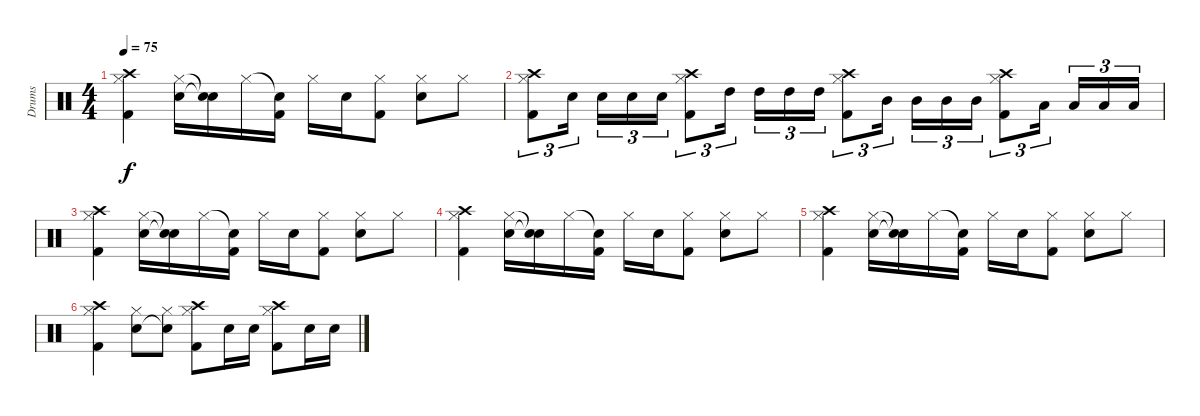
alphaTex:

\track ("Drums" "Drums") {instrument percussion}
\staff {score}
\articulation defaults
\ts (4 4)
\tempo 75
\clef neutral
\ks c
("Hi-Hat (closed)" "Crash high (hit)" "Kick (hit) 2").4{dy f} ("Hi-Hat (closed)" "Electric Snare (hit)").16 ("Snare (hit)"{t} "Snare (hit)"{t}).16 "Hi-Hat (closed)".16 ("Snare (hit)"{t} "Kick (hit) 2").16 "Hi-Hat (closed)".16 "Electric Snare (hit)".16 ("Hi-Hat (closed)" "Kick (hit) 2").8 ("Electric Snare (hit)" "Hi-Hat (closed)").8 "Hi-Hat (closed)".8 |
("Crash high (hit)" "Hi-Hat (closed)" "Kick (hit) 2").8{tu (3 2)} "Electric Snare (hit)".16{tu (3 2)} "Electric Snare (hit)".16{tu (3 2)} "Electric Snare (hit)".16{tu (3 2)} "Electric Snare (hit)".16{tu (3 2)} ("Crash high (hit)" "Hi-Hat (closed)" "Kick (hit) 2").8{tu (3 2)} "High Tom (hit)".16{tu (3 2)} "High Tom (hit)".16{tu (3 2)} "High Tom (hit)".16{tu (3 2)} "High Tom (hit)".16{tu (3 2)} ("Crash high (hit)" "Hi-Hat (closed)" "Kick (hit) 2").8{tu (3 2)} "Mid Tom (hit)".16{tu (3 2)} "Mid Tom (hit)".16{tu (3 2)} "Mid Tom (hit)".16{tu (3 2)} "Mid Tom (hit)".16{tu (3 2)} ("Crash high (hit)" "Hi-Hat (closed)" "Kick (hit) 2").8{tu (3 2)} "Low Tom (hit)".16{tu (3 2)} "Low Tom (hit)".16{tu (3 2)} "Low Tom (hit)".16{tu (3 2)} "Low Tom (hit)".16{tu (3 2)} |
("Hi-Hat (closed)" "Crash high (hit)" "Kick (hit) 2").4 ("Hi-Hat (closed)" "Electric Snare (hit)").16 ("Snare (hit)"{t} "Snare (hit)"{t}).16 "Hi-Hat (closed)".16 ("Snare (hit)"{t} "Kick (hit) 2").16 "Hi-Hat (closed)".16 "Electric Snare (hit)".16 ("Hi-Hat (closed)" "Kick (hit) 2").8 ("Electric Snare (hit)" "Hi-Hat (closed)").8 "Hi-Hat (closed)".8 |
("Hi-Hat (closed)" "Crash high (hit)" "Kick (hit) 2").4 ("Hi-Hat (closed)" "Electric Snare (hit)").16 ("Snare (hit)"{t} "Snare (hit)"{t}).16 "Hi-Hat (closed)".16 ("Snare (hit)"{t} "Kick (hit) 2").16 "Hi-Hat (closed)".16 "Electric Snare (hit)".16 ("Hi-Hat (closed)" "Kick (hit) 2").8 ("Electric Snare (hit)" "Hi-Hat (closed)").8 "Hi-Hat (closed)".8 |
("Hi-Hat (closed)" "Crash high (hit)" "Kick (hit) 2").4 ("Hi-Hat (closed)" "Electric Snare (hit)").16 ("Snare (hit)"{t} "Snare (hit)"{t}).16 "Hi-Hat (closed)".16 ("Snare (hit)"{t} "Kick (hit) 2").16 "Hi-Hat (closed)".16 "Electric Snare (hit)".16 ("Hi-Hat (closed)" "Kick (hit) 2").8 ("Electric Snare (hit)" "Hi-Hat (closed)").8 "Hi-Hat (closed)".8 |
("Hi-Hat (closed)" "Crash high (hit)" "Kick (hit) 2").4 ("Hi-Hat (closed)" "Electric Snare (hit)").8 ("Hi-Hat (closed)" "Snare (hit)"{t}).8 ("Kick (hit) 2" "Crash high (hit)" "Hi-Hat (closed)").8 "Electric Snare (hit)".16 "Electric Snare (hit)".16 ("Kick (hit) 2" "Crash high (hit)" "Hi-Hat (closed)").8 "Electric Snare (hit)".16 "Electric Snare (hit)".16
